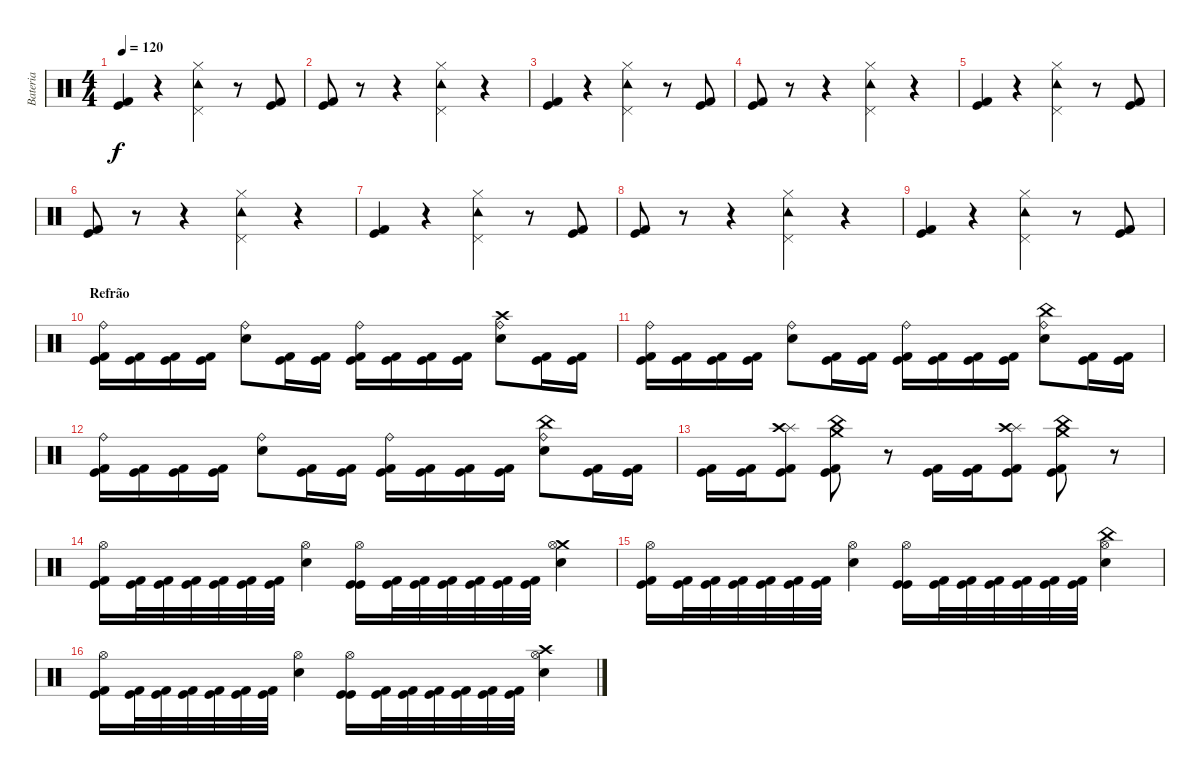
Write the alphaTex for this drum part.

\track ("Bateria" "Bateria") {instrument percussion}
\staff {score}
\articulation defaults
\ts (4 4)
\tempo 120
\clef neutral
\ks c
("Kick (hit) 2" "Kick (hit)").4{dy f} r.4 ("Tambourine (hit)" "Pedal Hi-Hat (hit)" "Hi-Hat (closed)").4 r.8 ("Kick (hit)" "Kick (hit) 2").8 |
("Kick (hit)" "Kick (hit) 2").8 r.8 r.4 ("Tambourine (hit)" "Pedal Hi-Hat (hit)" "Hi-Hat (closed)").4 r.4 |
("Kick (hit) 2" "Kick (hit)").4 r.4 ("Tambourine (hit)" "Pedal Hi-Hat (hit)" "Hi-Hat (closed)").4 r.8 ("Kick (hit)" "Kick (hit) 2").8 |
("Kick (hit)" "Kick (hit) 2").8 r.8 r.4 ("Tambourine (hit)" "Pedal Hi-Hat (hit)" "Hi-Hat (closed)").4 r.4 |
("Kick (hit) 2" "Kick (hit)").4 r.4 ("Tambourine (hit)" "Pedal Hi-Hat (hit)" "Hi-Hat (closed)").4 r.8 ("Kick (hit)" "Kick (hit) 2").8 |
("Kick (hit)" "Kick (hit) 2").8 r.8 r.4 ("Tambourine (hit)" "Pedal Hi-Hat (hit)" "Hi-Hat (closed)").4 r.4 |
("Kick (hit) 2" "Kick (hit)").4 r.4 ("Tambourine (hit)" "Pedal Hi-Hat (hit)" "Hi-Hat (closed)").4 r.8 ("Kick (hit)" "Kick (hit) 2").8 |
("Kick (hit)" "Kick (hit) 2").8 r.8 r.4 ("Tambourine (hit)" "Pedal Hi-Hat (hit)" "Hi-Hat (closed)").4 r.4 |
("Kick (hit) 2" "Kick (hit)").4 r.4 ("Tambourine (hit)" "Pedal Hi-Hat (hit)" "Hi-Hat (closed)").4 r.8 ("Kick (hit)" "Kick (hit) 2").8 |
\section ("" "Refrão")
("Kick (hit) 2" "Kick (hit)" "Ride (bell)").16 ("Kick (hit) 2" "Kick (hit)").16 ("Kick (hit)" "Kick (hit) 2").16 ("Kick (hit)" "Kick (hit) 2").16 ("Electric Snare (hit)" "Ride (bell)").8 ("Kick (hit)" "Kick (hit) 2").16 ("Kick (hit)" "Kick (hit) 2").16 ("Kick (hit) 2" "Kick (hit)" "Ride (bell)").16 ("Kick (hit)" "Kick (hit) 2").16 ("Kick (hit)" "Kick (hit) 2").16 ("Kick (hit)" "Kick (hit) 2").16 ("Crash high (hit)" "Electric Snare (hit)" "Ride (bell)").8 ("Kick (hit) 2" "Kick (hit)").16 ("Kick (hit) 2" "Kick (hit)").16 |
("Kick (hit) 2" "Kick (hit)" "Ride (bell)").16 ("Kick (hit) 2" "Kick (hit)").16 ("Kick (hit) 2" "Kick (hit)").16 ("Kick (hit) 2" "Kick (hit)").16 ("Electric Snare (hit)" "Ride (bell)").8 ("Kick (hit)" "Kick (hit) 2").16 ("Kick (hit)" "Kick (hit) 2").16 ("Kick (hit)" "Kick (hit) 2" "Ride (bell)").16 ("Kick (hit)" "Kick (hit) 2").16 ("Kick (hit)" "Kick (hit) 2").16 ("Kick (hit)" "Kick (hit) 2").16 ("China (hit)" "Electric Snare (hit)" "Ride (bell)").8 ("Kick (hit)" "Kick (hit) 2").16 ("Kick (hit)" "Kick (hit) 2").16 |
("Kick (hit)" "Kick (hit) 2" "Ride (bell)").16 ("Kick (hit)" "Kick (hit) 2").16 ("Kick (hit)" "Kick (hit) 2").16 ("Kick (hit)" "Kick (hit) 2").16 ("Electric Snare (hit)" "Ride (bell)").8 ("Kick (hit) 2" "Kick (hit)").16 ("Kick (hit) 2" "Kick (hit)").16 ("Kick (hit) 2" "Kick (hit)" "Ride (bell)").16 ("Kick (hit) 2" "Kick (hit)").16 ("Kick (hit) 2" "Kick (hit)").16 ("Kick (hit) 2" "Kick (hit)").16 ("China (hit)" "Electric Snare (hit)" "Ride (bell)").8 ("Kick (hit)" "Kick (hit) 2").16 ("Kick (hit)" "Kick (hit) 2").16 |
("Kick (hit)" "Kick (hit) 2").16 ("Kick (hit) 2" "Kick (hit)").16 ("Splash (hit)" "Crash high (hit)" "Kick (hit) 2" "Kick (hit)").8 ("Crash medium (hit)" "China (hit)" "Kick (hit) 2" "Kick (hit)").8 r.8 ("Kick (hit) 2" "Kick (hit)").16 ("Kick (hit) 2" "Kick (hit)").16 ("Splash (hit)" "Crash high (hit)" "Kick (hit)" "Kick (hit) 2").8 ("Crash medium (hit)" "China (hit)" "Kick (hit)" "Kick (hit) 2").8 r.8 |
("Kick (hit) 2" "Kick (hit)" "Hi-Hat (open)").16 ("Kick (hit) 2" "Kick (hit)").32 ("Kick (hit) 2" "Kick (hit)").32 ("Kick (hit) 2" "Kick (hit)").32 ("Kick (hit) 2" "Kick (hit)").32 ("Kick (hit) 2" "Kick (hit)").32 ("Kick (hit) 2" "Kick (hit)").32 ("Electric Snare (hit)" "Hi-Hat (open)").4 ("Kick (hit)" "Kick (hit)" "Hi-Hat (open)").16 ("Kick (hit) 2" "Kick (hit)").32 ("Kick (hit) 2" "Kick (hit)").32 ("Kick (hit) 2" "Kick (hit)").32 ("Kick (hit) 2" "Kick (hit)").32 ("Kick (hit) 2" "Kick (hit)").32 ("Kick (hit) 2" "Kick (hit)").32 ("Crash medium (hit)" "Electric Snare (hit)" "Hi-Hat (open)").4 |
("Kick (hit) 2" "Kick (hit)" "Hi-Hat (open)").16 ("Kick (hit) 2" "Kick (hit)").32 ("Kick (hit) 2" "Kick (hit)").32 ("Kick (hit) 2" "Kick (hit)").32 ("Kick (hit) 2" "Kick (hit)").32 ("Kick (hit) 2" "Kick (hit)").32 ("Kick (hit) 2" "Kick (hit)").32 ("Electric Snare (hit)" "Hi-Hat (open)").4 ("Kick (hit)" "Kick (hit)" "Hi-Hat (open)").16 ("Kick (hit) 2" "Kick (hit)").32 ("Kick (hit) 2" "Kick (hit)").32 ("Kick (hit) 2" "Kick (hit)").32 ("Kick (hit) 2" "Kick (hit)").32 ("Kick (hit) 2" "Kick (hit)").32 ("Kick (hit) 2" "Kick (hit)").32 ("China (hit)" "Electric Snare (hit)" "Hi-Hat (open)").4 |
("Kick (hit) 2" "Kick (hit)" "Hi-Hat (open)").16 ("Kick (hit) 2" "Kick (hit)").32 ("Kick (hit) 2" "Kick (hit)").32 ("Kick (hit) 2" "Kick (hit)").32 ("Kick (hit) 2" "Kick (hit)").32 ("Kick (hit) 2" "Kick (hit)").32 ("Kick (hit) 2" "Kick (hit)").32 ("Electric Snare (hit)" "Hi-Hat (open)").4 ("Kick (hit)" "Kick (hit)" "Hi-Hat (open)").16 ("Kick (hit) 2" "Kick (hit)").32 ("Kick (hit) 2" "Kick (hit)").32 ("Kick (hit) 2" "Kick (hit)").32 ("Kick (hit) 2" "Kick (hit)").32 ("Kick (hit) 2" "Kick (hit)").32 ("Kick (hit) 2" "Kick (hit)").32 ("Crash high (hit)" "Electric Snare (hit)" "Hi-Hat (open)").4
